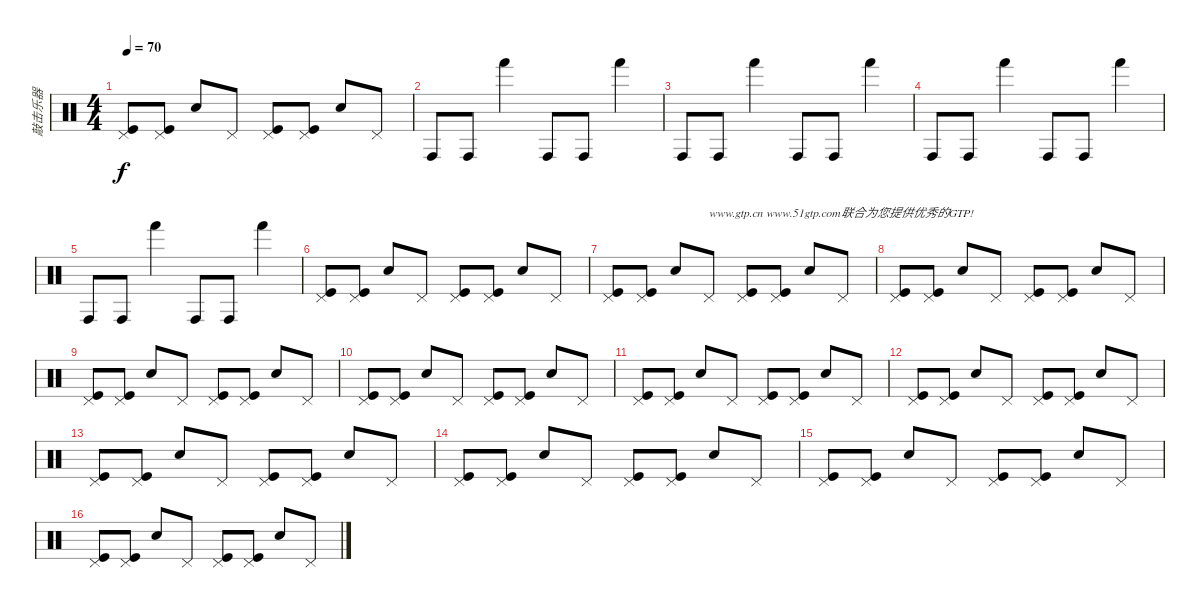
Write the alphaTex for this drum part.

\track ("敲击乐器" "敲击乐器") {instrument percussion}
\staff {score}
\articulation defaults
\ts (4 4)
\tempo 70
\clef neutral
\ks c
("Pedal Hi-Hat (hit)" "Kick (hit)").8{dy f} ("Pedal Hi-Hat (hit)" "Kick (hit)").8 "Snare (hit) 2".8 "Pedal Hi-Hat (hit)".8 ("Pedal Hi-Hat (hit)" "Kick (hit)").8 ("Pedal Hi-Hat (hit)" "Kick (hit)").8 "Snare (hit) 2".8 "Pedal Hi-Hat (hit)".8 |
"Conga high (hit)".8 "Conga high (hit)".8 "Hand (hit)".4 "Conga high (hit)".8 "Conga high (hit)".8 "Hand (hit)".4 |
"Conga high (hit)".8 "Conga high (hit)".8 "Hand (hit)".4 "Conga high (hit)".8 "Conga high (hit)".8 "Hand (hit)".4 |
"Conga high (hit)".8 "Conga high (hit)".8 "Hand (hit)".4 "Conga high (hit)".8 "Conga high (hit)".8 "Hand (hit)".4 |
"Conga high (hit)".8 "Conga high (hit)".8 "Hand (hit)".4 "Conga high (hit)".8 "Conga high (hit)".8 "Hand (hit)".4 |
("Pedal Hi-Hat (hit)" "Kick (hit)").8 ("Pedal Hi-Hat (hit)" "Kick (hit)").8 "Snare (hit) 2".8 "Pedal Hi-Hat (hit)".8 ("Pedal Hi-Hat (hit)" "Kick (hit)").8 ("Pedal Hi-Hat (hit)" "Kick (hit)").8 "Snare (hit) 2".8 "Pedal Hi-Hat (hit)".8 |
("Pedal Hi-Hat (hit)" "Kick (hit)").8 ("Pedal Hi-Hat (hit)" "Kick (hit)").8 "Snare (hit) 2".8 "Pedal Hi-Hat (hit)".8{txt "www.gtp.cn www.51gtp.com联合为您提供优秀的GTP!"} ("Pedal Hi-Hat (hit)" "Kick (hit)").8 ("Pedal Hi-Hat (hit)" "Kick (hit)").8 "Snare (hit) 2".8 "Pedal Hi-Hat (hit)".8 |
("Pedal Hi-Hat (hit)" "Kick (hit)").8 ("Pedal Hi-Hat (hit)" "Kick (hit)").8 "Snare (hit) 2".8 "Pedal Hi-Hat (hit)".8 ("Pedal Hi-Hat (hit)" "Kick (hit)").8 ("Pedal Hi-Hat (hit)" "Kick (hit)").8 "Snare (hit) 2".8 "Pedal Hi-Hat (hit)".8 |
("Pedal Hi-Hat (hit)" "Kick (hit)").8 ("Pedal Hi-Hat (hit)" "Kick (hit)").8 "Snare (hit) 2".8 "Pedal Hi-Hat (hit)".8 ("Pedal Hi-Hat (hit)" "Kick (hit)").8 ("Pedal Hi-Hat (hit)" "Kick (hit)").8 "Snare (hit) 2".8 "Pedal Hi-Hat (hit)".8 |
("Pedal Hi-Hat (hit)" "Kick (hit)").8 ("Pedal Hi-Hat (hit)" "Kick (hit)").8 "Snare (hit) 2".8 "Pedal Hi-Hat (hit)".8 ("Pedal Hi-Hat (hit)" "Kick (hit)").8 ("Pedal Hi-Hat (hit)" "Kick (hit)").8 "Snare (hit) 2".8 "Pedal Hi-Hat (hit)".8 |
("Pedal Hi-Hat (hit)" "Kick (hit)").8 ("Pedal Hi-Hat (hit)" "Kick (hit)").8 "Snare (hit) 2".8 "Pedal Hi-Hat (hit)".8 ("Pedal Hi-Hat (hit)" "Kick (hit)").8 ("Pedal Hi-Hat (hit)" "Kick (hit)").8 "Snare (hit) 2".8 "Pedal Hi-Hat (hit)".8 |
("Pedal Hi-Hat (hit)" "Kick (hit)").8 ("Pedal Hi-Hat (hit)" "Kick (hit)").8 "Snare (hit) 2".8 "Pedal Hi-Hat (hit)".8 ("Pedal Hi-Hat (hit)" "Kick (hit)").8 ("Pedal Hi-Hat (hit)" "Kick (hit)").8 "Snare (hit) 2".8 "Pedal Hi-Hat (hit)".8 |
("Pedal Hi-Hat (hit)" "Kick (hit)").8 ("Pedal Hi-Hat (hit)" "Kick (hit)").8 "Snare (hit) 2".8 "Pedal Hi-Hat (hit)".8 ("Pedal Hi-Hat (hit)" "Kick (hit)").8 ("Pedal Hi-Hat (hit)" "Kick (hit)").8 "Snare (hit) 2".8 "Pedal Hi-Hat (hit)".8 |
("Pedal Hi-Hat (hit)" "Kick (hit)").8 ("Pedal Hi-Hat (hit)" "Kick (hit)").8 "Snare (hit) 2".8 "Pedal Hi-Hat (hit)".8 ("Pedal Hi-Hat (hit)" "Kick (hit)").8 ("Pedal Hi-Hat (hit)" "Kick (hit)").8 "Snare (hit) 2".8 "Pedal Hi-Hat (hit)".8 |
("Pedal Hi-Hat (hit)" "Kick (hit)").8 ("Pedal Hi-Hat (hit)" "Kick (hit)").8 "Snare (hit) 2".8 "Pedal Hi-Hat (hit)".8 ("Pedal Hi-Hat (hit)" "Kick (hit)").8 ("Pedal Hi-Hat (hit)" "Kick (hit)").8 "Snare (hit) 2".8 "Pedal Hi-Hat (hit)".8 |
("Pedal Hi-Hat (hit)" "Kick (hit)").8 ("Pedal Hi-Hat (hit)" "Kick (hit)").8 "Snare (hit) 2".8 "Pedal Hi-Hat (hit)".8 ("Pedal Hi-Hat (hit)" "Kick (hit)").8 ("Pedal Hi-Hat (hit)" "Kick (hit)").8 "Snare (hit) 2".8 "Pedal Hi-Hat (hit)".8
